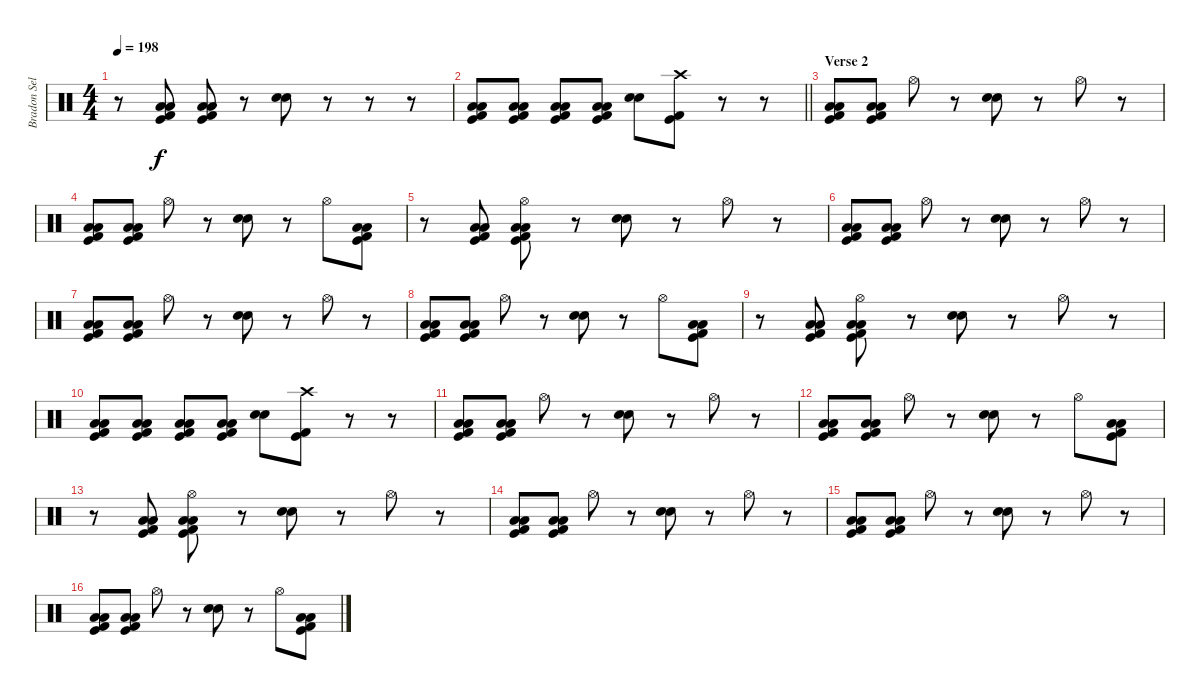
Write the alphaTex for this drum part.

\track ("Bradon Sellar" "Bradon Sel") {instrument percussion}
\staff {score}
\articulation defaults
\ts (4 4)
\tempo 198
\clef neutral
\ks c
r.8{dy f} ("Low Floor Tom (hit)" "Low Floor Tom (hit)" "Kick (hit) 2" "Kick (hit)").8 ("Low Floor Tom (hit)" "Low Floor Tom (hit)" "Kick (hit) 2" "Kick (hit)").8 r.8 ("Electric Snare (hit)" "Snare (hit) 2").8 r.8 r.8 r.8 |
\barLineRight lightlight
("Low Floor Tom (hit)" "Low Floor Tom (hit)" "Kick (hit) 2" "Kick (hit)").8 ("Low Floor Tom (hit)" "Low Floor Tom (hit)" "Kick (hit) 2" "Kick (hit)").8 ("Low Floor Tom (hit)" "Low Floor Tom (hit)" "Kick (hit) 2" "Kick (hit)").8 ("Low Floor Tom (hit)" "Low Floor Tom (hit)" "Kick (hit) 2" "Kick (hit)").8 ("Snare (hit) 2" "Electric Snare (hit)").8 ("Crash high (hit)" "Kick (hit) 2" "Kick (hit)").8 r.8 r.8 |
\section ("" "Verse 2")
("Low Floor Tom (hit)" "Low Floor Tom (hit)" "Kick (hit) 2" "Kick (hit)").8 ("Low Floor Tom (hit)" "Low Floor Tom (hit)" "Kick (hit) 2" "Kick (hit)").8 "Hi-Hat (open)".8 r.8 ("Electric Snare (hit)" "Snare (hit) 2").8 r.8 "Hi-Hat (open)".8 r.8 |
("Low Floor Tom (hit)" "Low Floor Tom (hit)" "Kick (hit) 2" "Kick (hit)").8 ("Low Floor Tom (hit)" "Low Floor Tom (hit)" "Kick (hit) 2" "Kick (hit)").8 "Hi-Hat (open)".8 r.8 ("Electric Snare (hit)" "Snare (hit) 2").8 r.8 "Hi-Hat (open)".8 ("Low Floor Tom (hit)" "Low Floor Tom (hit)" "Kick (hit) 2" "Kick (hit)").8 |
r.8 ("Low Floor Tom (hit)" "Low Floor Tom (hit)" "Kick (hit) 2" "Kick (hit)").8 ("Hi-Hat (open)" "Low Floor Tom (hit)" "Low Floor Tom (hit)" "Kick (hit) 2" "Kick (hit)").8 r.8 ("Electric Snare (hit)" "Snare (hit) 2").8 r.8 "Hi-Hat (open)".8 r.8 |
("Low Floor Tom (hit)" "Low Floor Tom (hit)" "Kick (hit) 2" "Kick (hit)").8 ("Low Floor Tom (hit)" "Low Floor Tom (hit)" "Kick (hit) 2" "Kick (hit)").8 "Hi-Hat (open)".8 r.8 ("Electric Snare (hit)" "Snare (hit) 2").8 r.8 "Hi-Hat (open)".8 r.8 |
("Low Floor Tom (hit)" "Low Floor Tom (hit)" "Kick (hit) 2" "Kick (hit)").8 ("Low Floor Tom (hit)" "Low Floor Tom (hit)" "Kick (hit) 2" "Kick (hit)").8 "Hi-Hat (open)".8 r.8 ("Electric Snare (hit)" "Snare (hit) 2").8 r.8 "Hi-Hat (open)".8 r.8 |
("Low Floor Tom (hit)" "Low Floor Tom (hit)" "Kick (hit) 2" "Kick (hit)").8 ("Low Floor Tom (hit)" "Low Floor Tom (hit)" "Kick (hit) 2" "Kick (hit)").8 "Hi-Hat (open)".8 r.8 ("Electric Snare (hit)" "Snare (hit) 2").8 r.8 "Hi-Hat (open)".8 ("Low Floor Tom (hit)" "Low Floor Tom (hit)" "Kick (hit) 2" "Kick (hit)").8 |
r.8 ("Low Floor Tom (hit)" "Low Floor Tom (hit)" "Kick (hit) 2" "Kick (hit)").8 ("Hi-Hat (open)" "Low Floor Tom (hit)" "Low Floor Tom (hit)" "Kick (hit) 2" "Kick (hit)").8 r.8 ("Electric Snare (hit)" "Snare (hit) 2").8 r.8 "Hi-Hat (open)".8 r.8 |
("Low Floor Tom (hit)" "Low Floor Tom (hit)" "Kick (hit) 2" "Kick (hit)").8 ("Low Floor Tom (hit)" "Low Floor Tom (hit)" "Kick (hit) 2" "Kick (hit)").8 ("Low Floor Tom (hit)" "Low Floor Tom (hit)" "Kick (hit) 2" "Kick (hit)").8 ("Low Floor Tom (hit)" "Low Floor Tom (hit)" "Kick (hit) 2" "Kick (hit)").8 ("Snare (hit) 2" "Electric Snare (hit)").8 ("Crash high (hit)" "Kick (hit) 2" "Kick (hit)").8 r.8 r.8 |
("Low Floor Tom (hit)" "Low Floor Tom (hit)" "Kick (hit) 2" "Kick (hit)").8 ("Low Floor Tom (hit)" "Low Floor Tom (hit)" "Kick (hit) 2" "Kick (hit)").8 "Hi-Hat (open)".8 r.8 ("Electric Snare (hit)" "Snare (hit) 2").8 r.8 "Hi-Hat (open)".8 r.8 |
("Low Floor Tom (hit)" "Low Floor Tom (hit)" "Kick (hit) 2" "Kick (hit)").8 ("Low Floor Tom (hit)" "Low Floor Tom (hit)" "Kick (hit) 2" "Kick (hit)").8 "Hi-Hat (open)".8 r.8 ("Electric Snare (hit)" "Snare (hit) 2").8 r.8 "Hi-Hat (open)".8 ("Low Floor Tom (hit)" "Low Floor Tom (hit)" "Kick (hit) 2" "Kick (hit)").8 |
r.8 ("Low Floor Tom (hit)" "Low Floor Tom (hit)" "Kick (hit) 2" "Kick (hit)").8 ("Hi-Hat (open)" "Low Floor Tom (hit)" "Low Floor Tom (hit)" "Kick (hit) 2" "Kick (hit)").8 r.8 ("Electric Snare (hit)" "Snare (hit) 2").8 r.8 "Hi-Hat (open)".8 r.8 |
("Low Floor Tom (hit)" "Low Floor Tom (hit)" "Kick (hit) 2" "Kick (hit)").8 ("Low Floor Tom (hit)" "Low Floor Tom (hit)" "Kick (hit) 2" "Kick (hit)").8 "Hi-Hat (open)".8 r.8 ("Electric Snare (hit)" "Snare (hit) 2").8 r.8 "Hi-Hat (open)".8 r.8 |
("Low Floor Tom (hit)" "Low Floor Tom (hit)" "Kick (hit) 2" "Kick (hit)").8 ("Low Floor Tom (hit)" "Low Floor Tom (hit)" "Kick (hit) 2" "Kick (hit)").8 "Hi-Hat (open)".8 r.8 ("Electric Snare (hit)" "Snare (hit) 2").8 r.8 "Hi-Hat (open)".8 r.8 |
("Low Floor Tom (hit)" "Low Floor Tom (hit)" "Kick (hit) 2" "Kick (hit)").8 ("Low Floor Tom (hit)" "Low Floor Tom (hit)" "Kick (hit) 2" "Kick (hit)").8 "Hi-Hat (open)".8 r.8 ("Electric Snare (hit)" "Snare (hit) 2").8 r.8 "Hi-Hat (open)".8 ("Low Floor Tom (hit)" "Low Floor Tom (hit)" "Kick (hit) 2" "Kick (hit)").8
